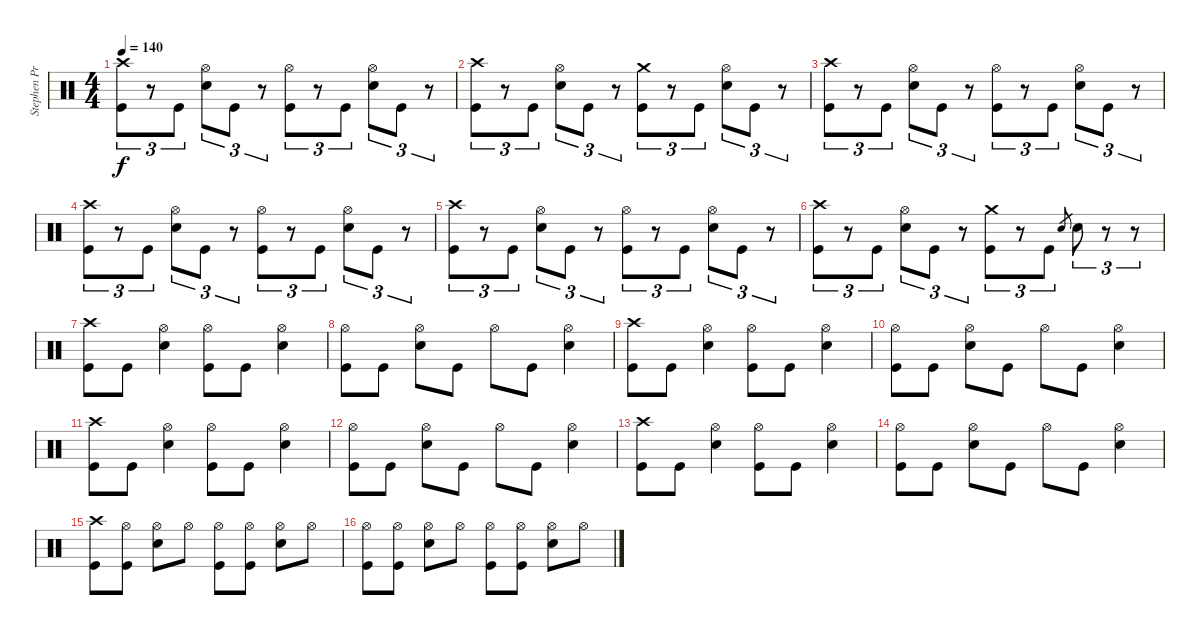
\track ("Stephen Priestly-Drums" "Stephen Pr") {instrument percussion}
\staff {score}
\articulation defaults
\ts (4 4)
\tempo 140
\clef neutral
\ks c
("Crash high (hit)" "Kick (hit)").8{tu (3 2) dy f} r.8{tu (3 2)} "Kick (hit)".8{tu (3 2)} ("Hi-Hat (open)" "Snare (hit) 2").8{tu (3 2)} "Kick (hit)".8{tu (3 2)} r.8{tu (3 2)} ("Hi-Hat (open)" "Kick (hit)").8{tu (3 2)} r.8{tu (3 2)} "Kick (hit)".8{tu (3 2)} ("Hi-Hat (open)" "Snare (hit) 2").8{tu (3 2)} "Kick (hit)".8{tu (3 2)} r.8{tu (3 2)} |
("Crash high (hit)" "Kick (hit)").8{tu (3 2)} r.8{tu (3 2)} "Kick (hit)".8{tu (3 2)} ("Hi-Hat (open)" "Snare (hit) 2").8{tu (3 2)} "Kick (hit)".8{tu (3 2)} r.8{tu (3 2)} ("Crash medium (hit)" "Kick (hit)").8{tu (3 2)} r.8{tu (3 2)} "Kick (hit)".8{tu (3 2)} ("Hi-Hat (open)" "Snare (hit) 2").8{tu (3 2)} "Kick (hit)".8{tu (3 2)} r.8{tu (3 2)} |
("Crash high (hit)" "Kick (hit)").8{tu (3 2)} r.8{tu (3 2)} "Kick (hit)".8{tu (3 2)} ("Hi-Hat (open)" "Snare (hit) 2").8{tu (3 2)} "Kick (hit)".8{tu (3 2)} r.8{tu (3 2)} ("Hi-Hat (open)" "Kick (hit)").8{tu (3 2)} r.8{tu (3 2)} "Kick (hit)".8{tu (3 2)} ("Hi-Hat (open)" "Snare (hit) 2").8{tu (3 2)} "Kick (hit)".8{tu (3 2)} r.8{tu (3 2)} |
("Crash high (hit)" "Kick (hit)").8{tu (3 2)} r.8{tu (3 2)} "Kick (hit)".8{tu (3 2)} ("Hi-Hat (open)" "Snare (hit) 2").8{tu (3 2)} "Kick (hit)".8{tu (3 2)} r.8{tu (3 2)} ("Hi-Hat (open)" "Kick (hit)").8{tu (3 2)} r.8{tu (3 2)} "Kick (hit)".8{tu (3 2)} ("Hi-Hat (open)" "Snare (hit) 2").8{tu (3 2)} "Kick (hit)".8{tu (3 2)} r.8{tu (3 2)} |
("Crash high (hit)" "Kick (hit)").8{tu (3 2)} r.8{tu (3 2)} "Kick (hit)".8{tu (3 2)} ("Hi-Hat (open)" "Snare (hit) 2").8{tu (3 2)} "Kick (hit)".8{tu (3 2)} r.8{tu (3 2)} ("Hi-Hat (open)" "Kick (hit)").8{tu (3 2)} r.8{tu (3 2)} "Kick (hit)".8{tu (3 2)} ("Hi-Hat (open)" "Snare (hit) 2").8{tu (3 2)} "Kick (hit)".8{tu (3 2)} r.8{tu (3 2)} |
("Crash high (hit)" "Kick (hit)").8{tu (3 2)} r.8{tu (3 2)} "Kick (hit)".8{tu (3 2)} ("Hi-Hat (open)" "Snare (hit) 2").8{tu (3 2)} "Kick (hit)".8{tu (3 2)} r.8{tu (3 2)} ("Crash medium (hit)" "Kick (hit)").8{tu (3 2)} r.8{tu (3 2)} "Kick (hit)".8{tu (3 2)} "Snare (hit) 2".8{gr} "Snare (hit) 2".8{tu (3 2)} r.8{tu (3 2)} r.8{tu (3 2)} |
("Crash high (hit)" "Kick (hit)").8 "Kick (hit)".8 ("Hi-Hat (open)" "Snare (hit) 2").4 ("Hi-Hat (open)" "Kick (hit)").8 "Kick (hit)".8 ("Hi-Hat (open)" "Snare (hit) 2").4 |
("Hi-Hat (open)" "Kick (hit)").8 "Kick (hit)".8 ("Hi-Hat (open)" "Snare (hit) 2").8 "Kick (hit)".8 "Hi-Hat (open)".8 "Kick (hit)".8 ("Hi-Hat (open)" "Snare (hit) 2").4 |
("Crash high (hit)" "Kick (hit)").8 "Kick (hit)".8 ("Hi-Hat (open)" "Snare (hit) 2").4 ("Hi-Hat (open)" "Kick (hit)").8 "Kick (hit)".8 ("Hi-Hat (open)" "Snare (hit) 2").4 |
("Hi-Hat (open)" "Kick (hit)").8 "Kick (hit)".8 ("Hi-Hat (open)" "Snare (hit) 2").8 "Kick (hit)".8 "Hi-Hat (open)".8 "Kick (hit)".8 ("Hi-Hat (open)" "Snare (hit) 2").4 |
("Crash high (hit)" "Kick (hit)").8 "Kick (hit)".8 ("Hi-Hat (open)" "Snare (hit) 2").4 ("Hi-Hat (open)" "Kick (hit)").8 "Kick (hit)".8 ("Hi-Hat (open)" "Snare (hit) 2").4 |
("Hi-Hat (open)" "Kick (hit)").8 "Kick (hit)".8 ("Hi-Hat (open)" "Snare (hit) 2").8 "Kick (hit)".8 "Hi-Hat (open)".8 "Kick (hit)".8 ("Hi-Hat (open)" "Snare (hit) 2").4 |
("Crash high (hit)" "Kick (hit)").8 "Kick (hit)".8 ("Hi-Hat (open)" "Snare (hit) 2").4 ("Hi-Hat (open)" "Kick (hit)").8 "Kick (hit)".8 ("Hi-Hat (open)" "Snare (hit) 2").4 |
("Hi-Hat (open)" "Kick (hit)").8 "Kick (hit)".8 ("Hi-Hat (open)" "Snare (hit) 2").8 "Kick (hit)".8 "Hi-Hat (open)".8 "Kick (hit)".8 ("Hi-Hat (open)" "Snare (hit) 2").4 |
("Crash high (hit)" "Kick (hit)").8 ("Hi-Hat (open)" "Kick (hit)").8 ("Hi-Hat (open)" "Snare (hit) 2").8 "Hi-Hat (open)".8 ("Hi-Hat (open)" "Kick (hit)").8 ("Hi-Hat (open)" "Kick (hit)").8 ("Hi-Hat (open)" "Snare (hit) 2").8 "Hi-Hat (open)".8 |
("Hi-Hat (open)" "Kick (hit)").8 ("Hi-Hat (open)" "Kick (hit)").8 ("Hi-Hat (open)" "Snare (hit) 2").8 "Hi-Hat (open)".8 ("Hi-Hat (open)" "Kick (hit)").8 ("Hi-Hat (open)" "Kick (hit)").8 ("Hi-Hat (open)" "Snare (hit) 2").8 "Hi-Hat (open)".8
